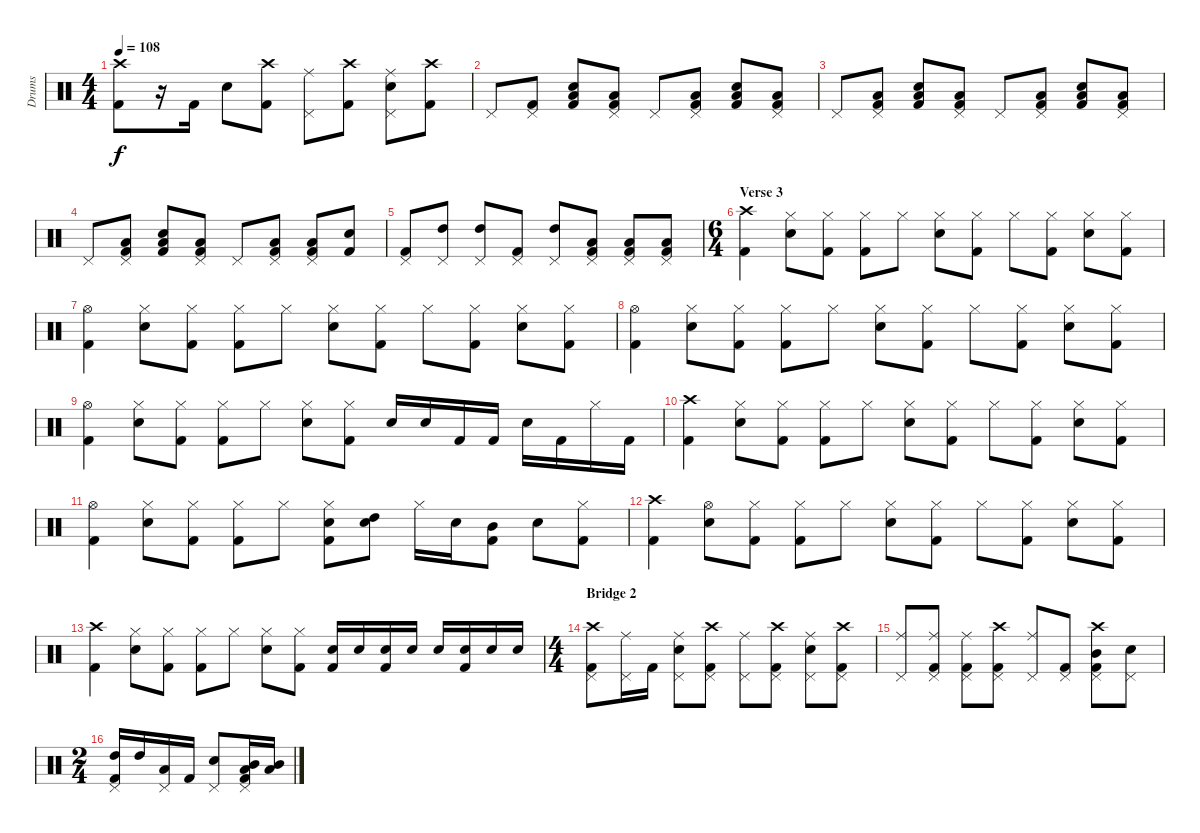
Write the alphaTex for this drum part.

\track ("Drums" "Drums") {instrument percussion}
\staff {score}
\articulation defaults
\ts (4 4)
\tempo 108
\clef neutral
\ks c
("Crash high (hit)" "Kick (hit) 2").8{dy f} r.16 "Kick (hit) 2".16 "Electric Snare (hit)".8 ("Crash high (hit)" "Kick (hit) 2").8 ("Ride (middle)" "Pedal Hi-Hat (hit)").8 ("Crash high (hit)" "Kick (hit) 2").8 ("Ride (middle)" "Electric Snare (hit)" "Pedal Hi-Hat (hit)").8 ("Crash high (hit)" "Kick (hit) 2").8 |
"Pedal Hi-Hat (hit)".8 ("Kick (hit) 2" "Pedal Hi-Hat (hit)").8 ("Electric Snare (hit)" "Low Tom (hit)" "Kick (hit) 2").8 ("Low Tom (hit)" "Kick (hit) 2" "Pedal Hi-Hat (hit)").8 "Pedal Hi-Hat (hit)".8 ("Low Tom (hit)" "Kick (hit) 2" "Pedal Hi-Hat (hit)").8 ("Electric Snare (hit)" "Low Tom (hit)" "Kick (hit) 2").8 ("Low Tom (hit)" "Kick (hit) 2" "Pedal Hi-Hat (hit)").8 |
"Pedal Hi-Hat (hit)".8 ("Low Tom (hit)" "Kick (hit) 2" "Pedal Hi-Hat (hit)").8 ("Electric Snare (hit)" "Low Tom (hit)" "Kick (hit) 2").8 ("Low Tom (hit)" "Kick (hit) 2" "Pedal Hi-Hat (hit)").8 "Pedal Hi-Hat (hit)".8 ("Low Tom (hit)" "Kick (hit) 2" "Pedal Hi-Hat (hit)").8 ("Electric Snare (hit)" "Low Tom (hit)" "Kick (hit) 2").8 ("Low Tom (hit)" "Kick (hit) 2" "Pedal Hi-Hat (hit)").8 |
"Pedal Hi-Hat (hit)".8 ("Low Tom (hit)" "Kick (hit) 2" "Pedal Hi-Hat (hit)").8 ("Electric Snare (hit)" "Low Tom (hit)" "Kick (hit) 2").8 ("Low Tom (hit)" "Kick (hit) 2" "Pedal Hi-Hat (hit)").8 "Pedal Hi-Hat (hit)".8 ("Low Tom (hit)" "Kick (hit) 2" "Pedal Hi-Hat (hit)").8 ("Low Tom (hit)" "Kick (hit) 2" "Pedal Hi-Hat (hit)").8 ("Electric Snare (hit)" "Kick (hit) 2").8 |
("Kick (hit) 2" "Pedal Hi-Hat (hit)").8 ("High Tom (hit)" "Pedal Hi-Hat (hit)").8 ("High Tom (hit)" "Pedal Hi-Hat (hit)").8 ("Kick (hit) 2" "Pedal Hi-Hat (hit)").8 ("High Tom (hit)" "Pedal Hi-Hat (hit)").8 ("Low Tom (hit)" "Kick (hit) 2" "Pedal Hi-Hat (hit)").8 ("Low Tom (hit)" "Kick (hit) 2" "Pedal Hi-Hat (hit)").8 ("Low Tom (hit)" "Kick (hit) 2" "Pedal Hi-Hat (hit)").8 |
\ts (6 4)
\section ("" "Verse 3")
("Crash high (hit)" "Kick (hit) 2").4 ("Hi-Hat (closed)" "Electric Snare (hit)").8 ("Hi-Hat (closed)" "Kick (hit) 2").8 ("Hi-Hat (closed)" "Kick (hit) 2").8 "Hi-Hat (closed)".8 ("Hi-Hat (closed)" "Electric Snare (hit)").8 ("Hi-Hat (closed)" "Kick (hit) 2").8 "Hi-Hat (closed)".8 ("Hi-Hat (closed)" "Kick (hit) 2").8 ("Hi-Hat (closed)" "Electric Snare (hit)").8 ("Hi-Hat (closed)" "Kick (hit) 2").8 |
("Hi-Hat (open)" "Kick (hit) 2").4 ("Hi-Hat (closed)" "Electric Snare (hit)").8 ("Hi-Hat (closed)" "Kick (hit) 2").8 ("Hi-Hat (closed)" "Kick (hit) 2").8 "Hi-Hat (closed)".8 ("Hi-Hat (closed)" "Electric Snare (hit)").8 ("Hi-Hat (closed)" "Kick (hit) 2").8 "Hi-Hat (closed)".8 ("Hi-Hat (closed)" "Kick (hit) 2").8 ("Hi-Hat (closed)" "Electric Snare (hit)").8 ("Hi-Hat (closed)" "Kick (hit) 2").8 |
("Hi-Hat (open)" "Kick (hit) 2").4 ("Hi-Hat (closed)" "Electric Snare (hit)").8 ("Hi-Hat (closed)" "Kick (hit) 2").8 ("Hi-Hat (closed)" "Kick (hit) 2").8 "Hi-Hat (closed)".8 ("Hi-Hat (closed)" "Electric Snare (hit)").8 ("Hi-Hat (closed)" "Kick (hit) 2").8 "Hi-Hat (closed)".8 ("Hi-Hat (closed)" "Kick (hit) 2").8 ("Hi-Hat (closed)" "Electric Snare (hit)").8 ("Hi-Hat (closed)" "Kick (hit) 2").8 |
("Hi-Hat (open)" "Kick (hit) 2").4 ("Hi-Hat (closed)" "Electric Snare (hit)").8 ("Hi-Hat (closed)" "Kick (hit) 2").8 ("Hi-Hat (closed)" "Kick (hit) 2").8 "Hi-Hat (closed)".8 ("Hi-Hat (closed)" "Electric Snare (hit)").8 ("Hi-Hat (closed)" "Kick (hit) 2").8 "Electric Snare (hit)".16 "Electric Snare (hit)".16 "Kick (hit) 2".16 "Kick (hit) 2".16 "Electric Snare (hit)".16 "Kick (hit) 2".16 "Hi-Hat (closed)".16 "Kick (hit) 2".16 |
("Crash high (hit)" "Kick (hit) 2").4 ("Hi-Hat (closed)" "Electric Snare (hit)").8 ("Hi-Hat (closed)" "Kick (hit) 2").8 ("Hi-Hat (closed)" "Kick (hit) 2").8 "Hi-Hat (closed)".8 ("Hi-Hat (closed)" "Electric Snare (hit)").8 ("Hi-Hat (closed)" "Kick (hit) 2").8 "Hi-Hat (closed)".8 ("Hi-Hat (closed)" "Kick (hit) 2").8 ("Hi-Hat (closed)" "Electric Snare (hit)").8 ("Hi-Hat (closed)" "Kick (hit) 2").8 |
("Hi-Hat (open)" "Kick (hit) 2").4 ("Hi-Hat (closed)" "Electric Snare (hit)").8 ("Hi-Hat (closed)" "Kick (hit) 2").8 ("Hi-Hat (closed)" "Kick (hit) 2").8 "Hi-Hat (closed)".8 ("Hi-Hat (closed)" "Electric Snare (hit)" "Kick (hit) 2").8 ("High Tom (hit)" "Electric Snare (hit)").8 "Hi-Hat (closed)".16 "Electric Snare (hit)".16 ("Mid Tom (hit)" "Kick (hit) 2").8 "Electric Snare (hit)".8 ("Hi-Hat (closed)" "Kick (hit) 2").8 |
("Crash high (hit)" "Kick (hit) 2").4 ("Hi-Hat (open)" "Electric Snare (hit)").8 ("Hi-Hat (closed)" "Kick (hit) 2").8 ("Hi-Hat (closed)" "Kick (hit) 2").8 "Hi-Hat (closed)".8 ("Hi-Hat (closed)" "Electric Snare (hit)").8 ("Hi-Hat (closed)" "Kick (hit) 2").8 "Hi-Hat (closed)".8 ("Hi-Hat (closed)" "Kick (hit) 2").8 ("Hi-Hat (closed)" "Electric Snare (hit)").8 ("Hi-Hat (closed)" "Kick (hit) 2").8 |
("Crash high (hit)" "Kick (hit) 2").4 ("Hi-Hat (closed)" "Electric Snare (hit)").8 ("Hi-Hat (closed)" "Kick (hit) 2").8 ("Hi-Hat (closed)" "Kick (hit) 2").8 "Hi-Hat (closed)".8 ("Hi-Hat (closed)" "Electric Snare (hit)").8 ("Hi-Hat (closed)" "Kick (hit) 2").8 ("Electric Snare (hit)" "Kick (hit) 2").16 "Electric Snare (hit)".16 ("Electric Snare (hit)" "Kick (hit) 2").16 "Electric Snare (hit)".16 "Electric Snare (hit)".16 ("Electric Snare (hit)" "Kick (hit) 2").16 "Electric Snare (hit)".16 "Electric Snare (hit)".16 |
\ts (4 4)
\section ("" "Bridge 2")
("Crash high (hit)" "Kick (hit) 2" "Pedal Hi-Hat (hit)").8 ("Ride (middle)" "Pedal Hi-Hat (hit)").16 "Kick (hit) 2".16 ("Ride (middle)" "Electric Snare (hit)" "Pedal Hi-Hat (hit)").8 ("Crash high (hit)" "Kick (hit) 2" "Pedal Hi-Hat (hit)").8 ("Ride (middle)" "Pedal Hi-Hat (hit)").8 ("Crash high (hit)" "Kick (hit) 2" "Pedal Hi-Hat (hit)").8 ("Ride (middle)" "Electric Snare (hit)" "Pedal Hi-Hat (hit)").8 ("Crash high (hit)" "Kick (hit) 2" "Pedal Hi-Hat (hit)").8 |
("Ride (middle)" "Pedal Hi-Hat (hit)").8 ("Ride (middle)" "Kick (hit) 2" "Pedal Hi-Hat (hit)").8 ("Ride (middle)" "Kick (hit) 2" "Pedal Hi-Hat (hit)").8 ("Crash high (hit)" "Kick (hit) 2" "Pedal Hi-Hat (hit)").8 ("Ride (middle)" "Pedal Hi-Hat (hit)").8 ("Kick (hit) 2" "Pedal Hi-Hat (hit)").8 ("Crash high (hit)" "Mid Tom (hit)" "Kick (hit) 2" "Pedal Hi-Hat (hit)").8 ("Electric Snare (hit)" "Pedal Hi-Hat (hit)").8 |
\ts (2 4)
("High Tom (hit)" "Kick (hit) 2" "Pedal Hi-Hat (hit)").16 "High Tom (hit)".16 ("Low Tom (hit)" "Pedal Hi-Hat (hit)").16 "Kick (hit) 2".16 ("Electric Snare (hit)" "Pedal Hi-Hat (hit)").8 ("Mid Tom (hit)" "Low Tom (hit)" "Kick (hit) 2" "Pedal Hi-Hat (hit)").16 ("Mid Tom (hit)" "Low Tom (hit)").16
